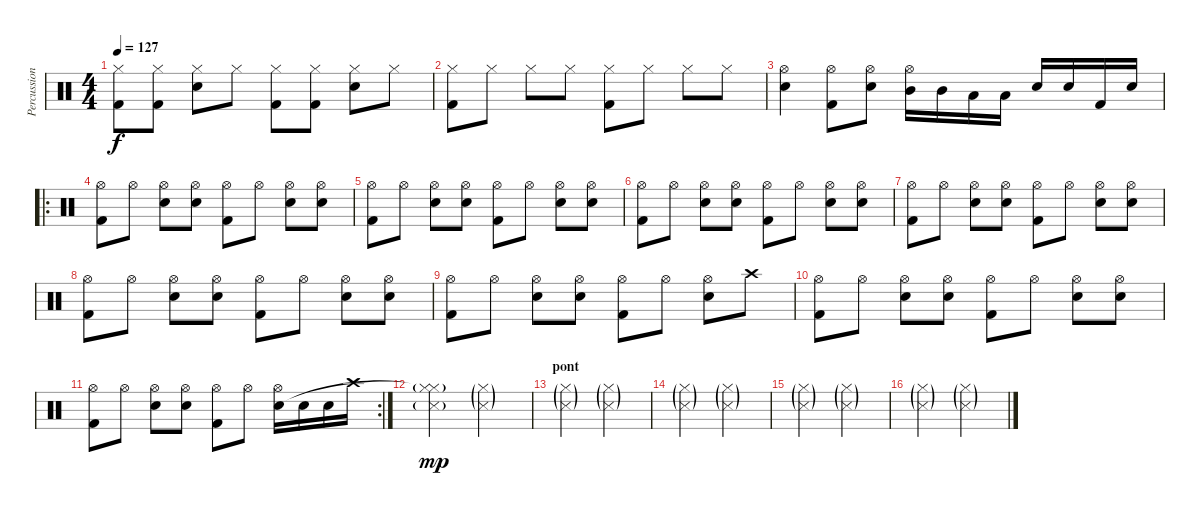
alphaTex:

\track ("Percussion" "Percussion") {instrument percussion}
\staff {score}
\articulation defaults
\ts (4 4)
\tempo 127
\clef neutral
\ks c
("Hi-Hat (closed)" "Kick (hit) 2").8{dy f} ("Hi-Hat (closed)" "Kick (hit) 2").8 ("Hi-Hat (closed)" "Electric Snare (hit)").8 "Hi-Hat (closed)".8 ("Hi-Hat (closed)" "Kick (hit) 2").8 ("Hi-Hat (closed)" "Kick (hit) 2").8 ("Hi-Hat (closed)" "Electric Snare (hit)").8 "Hi-Hat (closed)".8 |
("Hi-Hat (closed)" "Kick (hit) 2").8 "Hi-Hat (closed)".8 "Hi-Hat (closed)".8 "Hi-Hat (closed)".8 ("Hi-Hat (closed)" "Kick (hit) 2").8 "Hi-Hat (closed)".8 "Hi-Hat (closed)".8 "Hi-Hat (closed)".8 |
("Hi-Hat (open)" "Electric Snare (hit)").4 ("Hi-Hat (open)" "Kick (hit) 2").8 ("Hi-Hat (open)" "Electric Snare (hit)").8 ("Hi-Hat (open)" "Mid Tom (hit)").16 "Mid Tom (hit)".16 "Low Tom (hit)".16 "Low Tom (hit)".16 "Electric Snare (hit)".16 "Electric Snare (hit)".16 "Kick (hit) 2".16 "Electric Snare (hit)".16 |
\ro
("Hi-Hat (open)" "Kick (hit) 2").8 "Hi-Hat (open)".8 ("Hi-Hat (open)" "Electric Snare (hit)").8 ("Hi-Hat (open)" "Electric Snare (hit)").8 ("Hi-Hat (open)" "Kick (hit) 2").8 "Hi-Hat (open)".8 ("Hi-Hat (open)" "Electric Snare (hit)").8 ("Hi-Hat (open)" "Electric Snare (hit)").8 |
("Hi-Hat (open)" "Kick (hit) 2").8 "Hi-Hat (open)".8 ("Hi-Hat (open)" "Electric Snare (hit)").8 ("Hi-Hat (open)" "Electric Snare (hit)").8 ("Hi-Hat (open)" "Kick (hit) 2").8 "Hi-Hat (open)".8 ("Hi-Hat (open)" "Electric Snare (hit)").8 ("Hi-Hat (open)" "Electric Snare (hit)").8 |
("Hi-Hat (open)" "Kick (hit) 2").8 "Hi-Hat (open)".8 ("Hi-Hat (open)" "Electric Snare (hit)").8 ("Hi-Hat (open)" "Electric Snare (hit)").8 ("Hi-Hat (open)" "Kick (hit) 2").8 "Hi-Hat (open)".8 ("Hi-Hat (open)" "Electric Snare (hit)").8 ("Hi-Hat (open)" "Electric Snare (hit)").8 |
("Hi-Hat (open)" "Kick (hit) 2").8 "Hi-Hat (open)".8 ("Hi-Hat (open)" "Electric Snare (hit)").8 ("Hi-Hat (open)" "Electric Snare (hit)").8 ("Hi-Hat (open)" "Kick (hit) 2").8 "Hi-Hat (open)".8 ("Hi-Hat (open)" "Electric Snare (hit)").8 ("Hi-Hat (open)" "Electric Snare (hit)").8 |
("Hi-Hat (open)" "Kick (hit) 2").8 "Hi-Hat (open)".8 ("Hi-Hat (open)" "Electric Snare (hit)").8 ("Hi-Hat (open)" "Electric Snare (hit)").8 ("Hi-Hat (open)" "Kick (hit) 2").8 "Hi-Hat (open)".8 ("Hi-Hat (open)" "Electric Snare (hit)").8 ("Hi-Hat (open)" "Electric Snare (hit)").8 |
("Hi-Hat (open)" "Kick (hit) 2").8 "Hi-Hat (open)".8 ("Hi-Hat (open)" "Electric Snare (hit)").8 ("Hi-Hat (open)" "Electric Snare (hit)").8 ("Hi-Hat (open)" "Kick (hit) 2").8 "Hi-Hat (open)".8 ("Hi-Hat (open)" "Electric Snare (hit)").8 "Crash high (hit)".8 |
("Hi-Hat (open)" "Kick (hit) 2").8 "Hi-Hat (open)".8 ("Hi-Hat (open)" "Electric Snare (hit)").8 ("Hi-Hat (open)" "Electric Snare (hit)").8 ("Hi-Hat (open)" "Kick (hit) 2").8 "Hi-Hat (open)".8 ("Hi-Hat (open)" "Electric Snare (hit)").8 ("Hi-Hat (open)" "Electric Snare (hit)").8 |
\rc 2
("Hi-Hat (open)" "Kick (hit) 2").8 "Hi-Hat (open)".8 ("Hi-Hat (open)" "Electric Snare (hit)").8 ("Hi-Hat (open)" "Electric Snare (hit)").8 ("Hi-Hat (open)" "Kick (hit) 2").8 "Hi-Hat (open)".8 ("Hi-Hat (open)" "Electric Snare (hit)").16 "Electric Snare (hit)".16 "Electric Snare (hit)".16 "Crash high (hit)".16 |
("Hi-Hat (closed)"{g} "Hi-Hat (closed)"{t} "Snare (side stick) 3"{g}).2{dy mp} ("Hi-Hat (closed)"{g} "Snare (side stick) 3"{g}).2 |
\section ("" "pont")
("Hi-Hat (closed)"{g} "Snare (side stick) 3"{g}).2 ("Hi-Hat (closed)"{g} "Snare (side stick) 3"{g}).2 |
("Hi-Hat (closed)"{g} "Snare (side stick) 3"{g}).2 ("Hi-Hat (closed)"{g} "Snare (side stick) 3"{g}).2 |
("Hi-Hat (closed)"{g} "Snare (side stick) 3"{g}).2 ("Hi-Hat (closed)"{g} "Snare (side stick) 3"{g}).2 |
("Hi-Hat (closed)"{g} "Snare (side stick) 3"{g}).2 ("Hi-Hat (closed)"{g} "Snare (side stick) 3"{g}).2
